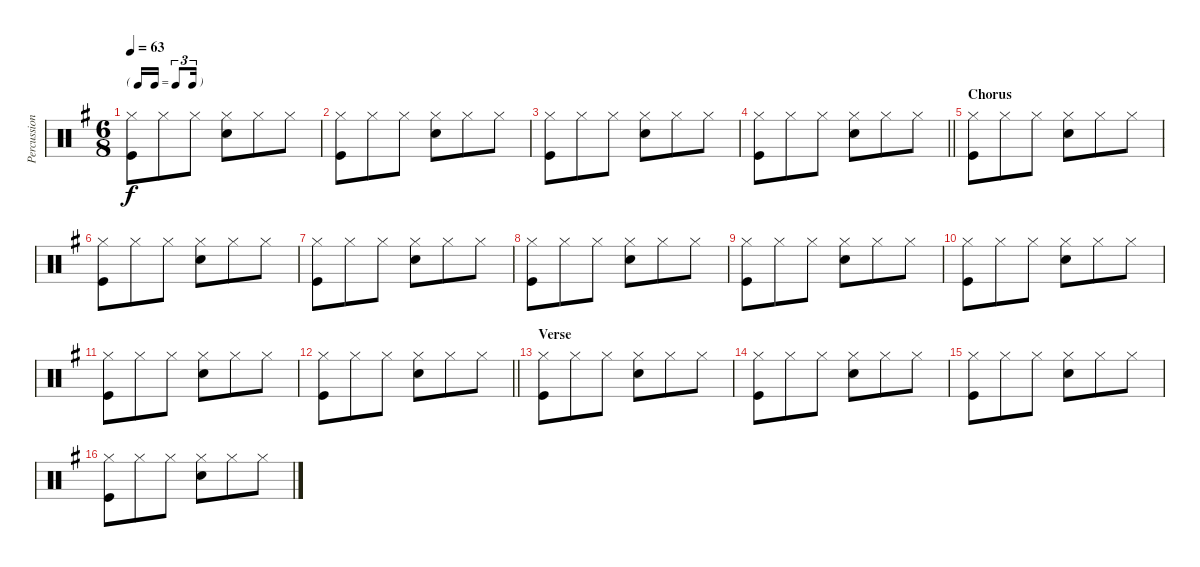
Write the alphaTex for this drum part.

\track ("Percussion" "Percussion") {instrument percussion}
\staff {score}
\articulation defaults
\ts (6 8)
\tf triplet16th
\tempo 63
\clef neutral
\ks g
("Hi-Hat (closed)" "Kick (hit)").8{dy f} "Hi-Hat (closed)".8 "Hi-Hat (closed)".8 ("Hi-Hat (closed)" "Electric Snare (hit)").8 "Hi-Hat (closed)".8 "Hi-Hat (closed)".8 |
("Hi-Hat (closed)" "Kick (hit)").8 "Hi-Hat (closed)".8 "Hi-Hat (closed)".8 ("Hi-Hat (closed)" "Electric Snare (hit)").8 "Hi-Hat (closed)".8 "Hi-Hat (closed)".8 |
("Hi-Hat (closed)" "Kick (hit)").8 "Hi-Hat (closed)".8 "Hi-Hat (closed)".8 ("Hi-Hat (closed)" "Electric Snare (hit)").8 "Hi-Hat (closed)".8 "Hi-Hat (closed)".8 |
\barLineRight lightlight
("Hi-Hat (closed)" "Kick (hit)").8 "Hi-Hat (closed)".8 "Hi-Hat (closed)".8 ("Hi-Hat (closed)" "Electric Snare (hit)").8 "Hi-Hat (closed)".8 "Hi-Hat (closed)".8 |
\section ("" "Chorus")
("Hi-Hat (closed)" "Kick (hit)").8 "Hi-Hat (closed)".8 "Hi-Hat (closed)".8 ("Hi-Hat (closed)" "Electric Snare (hit)").8 "Hi-Hat (closed)".8 "Hi-Hat (closed)".8 |
("Hi-Hat (closed)" "Kick (hit)").8 "Hi-Hat (closed)".8 "Hi-Hat (closed)".8 ("Hi-Hat (closed)" "Electric Snare (hit)").8 "Hi-Hat (closed)".8 "Hi-Hat (closed)".8 |
("Hi-Hat (closed)" "Kick (hit)").8 "Hi-Hat (closed)".8 "Hi-Hat (closed)".8 ("Hi-Hat (closed)" "Electric Snare (hit)").8 "Hi-Hat (closed)".8 "Hi-Hat (closed)".8 |
("Hi-Hat (closed)" "Kick (hit)").8 "Hi-Hat (closed)".8 "Hi-Hat (closed)".8 ("Hi-Hat (closed)" "Electric Snare (hit)").8 "Hi-Hat (closed)".8 "Hi-Hat (closed)".8 |
("Hi-Hat (closed)" "Kick (hit)").8 "Hi-Hat (closed)".8 "Hi-Hat (closed)".8 ("Hi-Hat (closed)" "Electric Snare (hit)").8 "Hi-Hat (closed)".8 "Hi-Hat (closed)".8 |
("Hi-Hat (closed)" "Kick (hit)").8 "Hi-Hat (closed)".8 "Hi-Hat (closed)".8 ("Hi-Hat (closed)" "Electric Snare (hit)").8 "Hi-Hat (closed)".8 "Hi-Hat (closed)".8 |
("Hi-Hat (closed)" "Kick (hit)").8 "Hi-Hat (closed)".8 "Hi-Hat (closed)".8 ("Hi-Hat (closed)" "Electric Snare (hit)").8 "Hi-Hat (closed)".8 "Hi-Hat (closed)".8 |
\barLineRight lightlight
("Hi-Hat (closed)" "Kick (hit)").8 "Hi-Hat (closed)".8 "Hi-Hat (closed)".8 ("Hi-Hat (closed)" "Electric Snare (hit)").8 "Hi-Hat (closed)".8 "Hi-Hat (closed)".8 |
\section ("" "Verse")
("Hi-Hat (closed)" "Kick (hit)").8 "Hi-Hat (closed)".8 "Hi-Hat (closed)".8 ("Hi-Hat (closed)" "Electric Snare (hit)").8 "Hi-Hat (closed)".8 "Hi-Hat (closed)".8 |
("Hi-Hat (closed)" "Kick (hit)").8 "Hi-Hat (closed)".8 "Hi-Hat (closed)".8 ("Hi-Hat (closed)" "Electric Snare (hit)").8 "Hi-Hat (closed)".8 "Hi-Hat (closed)".8 |
("Hi-Hat (closed)" "Kick (hit)").8 "Hi-Hat (closed)".8 "Hi-Hat (closed)".8 ("Hi-Hat (closed)" "Electric Snare (hit)").8 "Hi-Hat (closed)".8 "Hi-Hat (closed)".8 |
("Hi-Hat (closed)" "Kick (hit)").8 "Hi-Hat (closed)".8 "Hi-Hat (closed)".8 ("Hi-Hat (closed)" "Electric Snare (hit)").8 "Hi-Hat (closed)".8 "Hi-Hat (closed)".8
